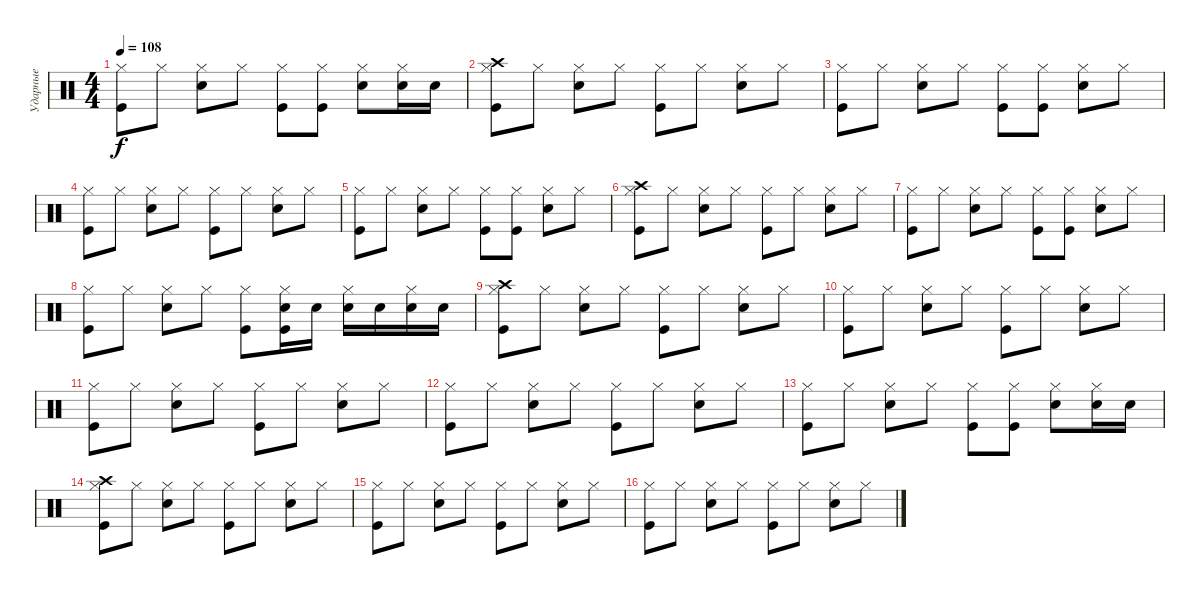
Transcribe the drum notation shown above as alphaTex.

\track ("Ударные" "Ударные") {instrument percussion}
\staff {score}
\articulation defaults
\ts (4 4)
\tempo 108
\clef neutral
\ks c
("Hi-Hat (closed)" "Kick (hit)").8{dy f} "Hi-Hat (closed)".8 ("Hi-Hat (closed)" "Snare (hit) 2").8 "Hi-Hat (closed)".8 ("Hi-Hat (closed)" "Kick (hit)").8 ("Hi-Hat (closed)" "Kick (hit)").8 ("Hi-Hat (closed)" "Snare (hit) 2").8 ("Hi-Hat (closed)" "Snare (hit) 2").16 "Snare (hit) 2".16 |
("Hi-Hat (closed)" "Kick (hit)" "Crash high (hit)").8 "Hi-Hat (closed)".8 ("Hi-Hat (closed)" "Snare (hit) 2").8 "Hi-Hat (closed)".8 ("Hi-Hat (closed)" "Kick (hit)").8 "Hi-Hat (closed)".8 ("Hi-Hat (closed)" "Snare (hit) 2").8 "Hi-Hat (closed)".8 |
("Hi-Hat (closed)" "Kick (hit)").8 "Hi-Hat (closed)".8 ("Hi-Hat (closed)" "Snare (hit) 2").8 "Hi-Hat (closed)".8 ("Hi-Hat (closed)" "Kick (hit)").8 ("Hi-Hat (closed)" "Kick (hit)").8 ("Hi-Hat (closed)" "Snare (hit) 2").8 "Hi-Hat (closed)".8 |
("Hi-Hat (closed)" "Kick (hit)").8 "Hi-Hat (closed)".8 ("Hi-Hat (closed)" "Snare (hit) 2").8 "Hi-Hat (closed)".8 ("Hi-Hat (closed)" "Kick (hit)").8 "Hi-Hat (closed)".8 ("Hi-Hat (closed)" "Snare (hit) 2").8 "Hi-Hat (closed)".8 |
("Hi-Hat (closed)" "Kick (hit)").8 "Hi-Hat (closed)".8 ("Hi-Hat (closed)" "Snare (hit) 2").8 "Hi-Hat (closed)".8 ("Hi-Hat (closed)" "Kick (hit)").8 ("Hi-Hat (closed)" "Kick (hit)").8 ("Hi-Hat (closed)" "Snare (hit) 2").8 "Hi-Hat (closed)".8 |
("Hi-Hat (closed)" "Kick (hit)" "Crash high (hit)").8 "Hi-Hat (closed)".8 ("Hi-Hat (closed)" "Snare (hit) 2").8 "Hi-Hat (closed)".8 ("Hi-Hat (closed)" "Kick (hit)").8 "Hi-Hat (closed)".8 ("Hi-Hat (closed)" "Snare (hit) 2").8 "Hi-Hat (closed)".8 |
("Hi-Hat (closed)" "Kick (hit)").8 "Hi-Hat (closed)".8 ("Hi-Hat (closed)" "Snare (hit) 2").8 "Hi-Hat (closed)".8 ("Hi-Hat (closed)" "Kick (hit)").8 ("Hi-Hat (closed)" "Kick (hit)").8 ("Hi-Hat (closed)" "Snare (hit) 2").8 "Hi-Hat (closed)".8 |
("Hi-Hat (closed)" "Kick (hit)").8 "Hi-Hat (closed)".8 ("Hi-Hat (closed)" "Snare (hit) 2").8 "Hi-Hat (closed)".8 ("Hi-Hat (closed)" "Kick (hit)").8 ("Hi-Hat (closed)" "Kick (hit)" "Snare (hit) 2").16 "Snare (hit) 2".16 ("Hi-Hat (closed)" "Snare (hit) 2").16 "Snare (hit) 2".16 ("Hi-Hat (closed)" "Snare (hit) 2").16 "Snare (hit) 2".16 |
("Hi-Hat (closed)" "Kick (hit)" "Crash high (hit)").8 "Hi-Hat (closed)".8 ("Hi-Hat (closed)" "Snare (hit) 2").8 "Hi-Hat (closed)".8 ("Hi-Hat (closed)" "Kick (hit)").8 "Hi-Hat (closed)".8 ("Hi-Hat (closed)" "Snare (hit) 2").8 "Hi-Hat (closed)".8 |
("Hi-Hat (closed)" "Kick (hit)").8 "Hi-Hat (closed)".8 ("Hi-Hat (closed)" "Snare (hit) 2").8 "Hi-Hat (closed)".8 ("Hi-Hat (closed)" "Kick (hit)").8 "Hi-Hat (closed)".8 ("Hi-Hat (closed)" "Snare (hit) 2").8 "Hi-Hat (closed)".8 |
("Hi-Hat (closed)" "Kick (hit)").8 "Hi-Hat (closed)".8 ("Hi-Hat (closed)" "Snare (hit) 2").8 "Hi-Hat (closed)".8 ("Hi-Hat (closed)" "Kick (hit)").8 "Hi-Hat (closed)".8 ("Hi-Hat (closed)" "Snare (hit) 2").8 "Hi-Hat (closed)".8 |
("Hi-Hat (closed)" "Kick (hit)").8 "Hi-Hat (closed)".8 ("Hi-Hat (closed)" "Snare (hit) 2").8 "Hi-Hat (closed)".8 ("Hi-Hat (closed)" "Kick (hit)").8 "Hi-Hat (closed)".8 ("Hi-Hat (closed)" "Snare (hit) 2").8 "Hi-Hat (closed)".8 |
("Hi-Hat (closed)" "Kick (hit)").8 "Hi-Hat (closed)".8 ("Hi-Hat (closed)" "Snare (hit) 2").8 "Hi-Hat (closed)".8 ("Hi-Hat (closed)" "Kick (hit)").8 ("Hi-Hat (closed)" "Kick (hit)").8 ("Hi-Hat (closed)" "Snare (hit) 2").8 ("Hi-Hat (closed)" "Snare (hit) 2").16 "Snare (hit) 2".16 |
("Hi-Hat (closed)" "Kick (hit)" "Crash high (hit)").8 "Hi-Hat (closed)".8 ("Hi-Hat (closed)" "Snare (hit) 2").8 "Hi-Hat (closed)".8 ("Hi-Hat (closed)" "Kick (hit)").8 "Hi-Hat (closed)".8 ("Hi-Hat (closed)" "Snare (hit) 2").8 "Hi-Hat (closed)".8 |
("Hi-Hat (closed)" "Kick (hit)").8 "Hi-Hat (closed)".8 ("Hi-Hat (closed)" "Snare (hit) 2").8 "Hi-Hat (closed)".8 ("Hi-Hat (closed)" "Kick (hit)").8 "Hi-Hat (closed)".8 ("Hi-Hat (closed)" "Snare (hit) 2").8 "Hi-Hat (closed)".8 |
("Hi-Hat (closed)" "Kick (hit)").8 "Hi-Hat (closed)".8 ("Hi-Hat (closed)" "Snare (hit) 2").8 "Hi-Hat (closed)".8 ("Hi-Hat (closed)" "Kick (hit)").8 "Hi-Hat (closed)".8 ("Hi-Hat (closed)" "Snare (hit) 2").8 "Hi-Hat (closed)".8
